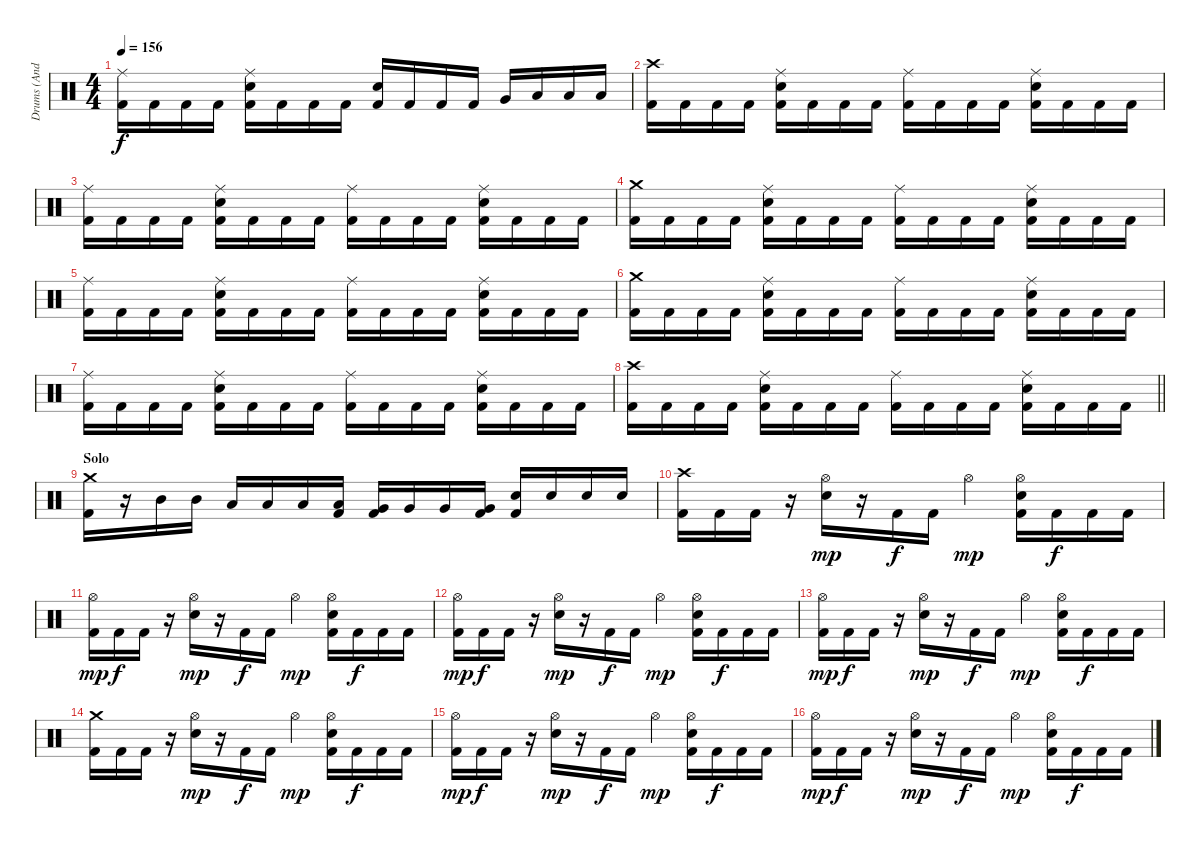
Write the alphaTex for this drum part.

\track ("Drums (Andy C)" "Drums (And") {instrument percussion}
\staff
\articulation defaults
\ts (4 4)
\tempo 156
\clef neutral
\ks c
("Ride (middle)" "Kick (hit) 2").16{dy f} "Kick (hit) 2".16 "Kick (hit) 2".16 "Kick (hit) 2".16 ("Ride (middle)" "Kick (hit) 2" "Electric Snare (hit)").16 "Kick (hit) 2".16 "Kick (hit) 2".16 "Kick (hit) 2".16 ("Kick (hit) 2" "Electric Snare (hit)").16 "Kick (hit) 2".16 "Kick (hit) 2".16 "Kick (hit) 2".16 "Very Low Tom (hit)".16 "Low Floor Tom (hit)".16 "Low Floor Tom (hit)".16 "Low Floor Tom (hit)".16 |
("Crash high (hit)" "Kick (hit) 2").16 "Kick (hit) 2".16 "Kick (hit) 2".16 "Kick (hit) 2".16 ("Ride (middle)" "Kick (hit) 2" "Electric Snare (hit)").16 "Kick (hit) 2".16 "Kick (hit) 2".16 "Kick (hit) 2".16 ("Ride (middle)" "Kick (hit) 2").16 "Kick (hit) 2".16 "Kick (hit) 2".16 "Kick (hit) 2".16 ("Ride (middle)" "Kick (hit) 2" "Electric Snare (hit)").16 "Kick (hit) 2".16 "Kick (hit) 2".16 "Kick (hit) 2".16 |
("Ride (middle)" "Kick (hit) 2").16 "Kick (hit) 2".16 "Kick (hit) 2".16 "Kick (hit) 2".16 ("Ride (middle)" "Kick (hit) 2" "Electric Snare (hit)").16 "Kick (hit) 2".16 "Kick (hit) 2".16 "Kick (hit) 2".16 ("Ride (middle)" "Kick (hit) 2").16 "Kick (hit) 2".16 "Kick (hit) 2".16 "Kick (hit) 2".16 ("Ride (middle)" "Kick (hit) 2" "Electric Snare (hit)").16 "Kick (hit) 2".16 "Kick (hit) 2".16 "Kick (hit) 2".16 |
("Crash medium (hit)" "Kick (hit) 2").16 "Kick (hit) 2".16 "Kick (hit) 2".16 "Kick (hit) 2".16 ("Ride (middle)" "Kick (hit) 2" "Electric Snare (hit)").16 "Kick (hit) 2".16 "Kick (hit) 2".16 "Kick (hit) 2".16 ("Ride (middle)" "Kick (hit) 2").16 "Kick (hit) 2".16 "Kick (hit) 2".16 "Kick (hit) 2".16 ("Ride (middle)" "Kick (hit) 2" "Electric Snare (hit)").16 "Kick (hit) 2".16 "Kick (hit) 2".16 "Kick (hit) 2".16 |
("Ride (middle)" "Kick (hit) 2").16 "Kick (hit) 2".16 "Kick (hit) 2".16 "Kick (hit) 2".16 ("Ride (middle)" "Kick (hit) 2" "Electric Snare (hit)").16 "Kick (hit) 2".16 "Kick (hit) 2".16 "Kick (hit) 2".16 ("Ride (middle)" "Kick (hit) 2").16 "Kick (hit) 2".16 "Kick (hit) 2".16 "Kick (hit) 2".16 ("Ride (middle)" "Kick (hit) 2" "Electric Snare (hit)").16 "Kick (hit) 2".16 "Kick (hit) 2".16 "Kick (hit) 2".16 |
("Crash medium (hit)" "Kick (hit) 2").16 "Kick (hit) 2".16 "Kick (hit) 2".16 "Kick (hit) 2".16 ("Ride (middle)" "Kick (hit) 2" "Electric Snare (hit)").16 "Kick (hit) 2".16 "Kick (hit) 2".16 "Kick (hit) 2".16 ("Ride (middle)" "Kick (hit) 2").16 "Kick (hit) 2".16 "Kick (hit) 2".16 "Kick (hit) 2".16 ("Ride (middle)" "Kick (hit) 2" "Electric Snare (hit)").16 "Kick (hit) 2".16 "Kick (hit) 2".16 "Kick (hit) 2".16 |
("Ride (middle)" "Kick (hit) 2").16 "Kick (hit) 2".16 "Kick (hit) 2".16 "Kick (hit) 2".16 ("Ride (middle)" "Kick (hit) 2" "Electric Snare (hit)").16 "Kick (hit) 2".16 "Kick (hit) 2".16 "Kick (hit) 2".16 ("Ride (middle)" "Kick (hit) 2").16 "Kick (hit) 2".16 "Kick (hit) 2".16 "Kick (hit) 2".16 ("Ride (middle)" "Kick (hit) 2" "Electric Snare (hit)").16 "Kick (hit) 2".16 "Kick (hit) 2".16 "Kick (hit) 2".16 |
\barLineRight lightlight
("Crash high (hit)" "Kick (hit) 2").16 "Kick (hit) 2".16 "Kick (hit) 2".16 "Kick (hit) 2".16 ("Ride (middle)" "Kick (hit) 2" "Electric Snare (hit)").16 "Kick (hit) 2".16 "Kick (hit) 2".16 "Kick (hit) 2".16 ("Ride (middle)" "Kick (hit) 2").16 "Kick (hit) 2".16 "Kick (hit) 2".16 "Kick (hit) 2".16 ("Ride (middle)" "Kick (hit) 2" "Electric Snare (hit)").16 "Kick (hit) 2".16 "Kick (hit) 2".16 "Kick (hit) 2".16 |
\section ("" "Solo ")
("Crash medium (hit)" "Kick (hit) 2").16 r.16 "Mid Tom (hit)".16 "Mid Tom (hit)".16 "Low Tom (hit)".16 "Low Tom (hit)".16 "Low Tom (hit)".16 ("Low Tom (hit)" "Kick (hit) 2").16 ("Very Low Tom (hit)" "Kick (hit) 2").16 "Very Low Tom (hit)".16 "Very Low Tom (hit)".16 ("Very Low Tom (hit)" "Kick (hit) 2").16 ("Electric Snare (hit)" "Kick (hit) 2").16 "Electric Snare (hit)".16 "Electric Snare (hit)".16 "Electric Snare (hit)".16 |
("Crash high (hit)" "Kick (hit) 2").16 "Kick (hit) 2".16 "Kick (hit) 2".16 r.16 ("Hi-Hat (open)" "Electric Snare (hit)").16{dy mp} r.16 "Kick (hit) 2".16{dy f} "Kick (hit) 2".16 "Hi-Hat (open)".4{dy mp} ("Hi-Hat (open)" "Kick (hit) 2" "Electric Snare (hit)").16 "Kick (hit) 2".16{dy f} "Kick (hit) 2".16 "Kick (hit) 2".16 |
("Hi-Hat (open)" "Kick (hit) 2").16{dy mp} "Kick (hit) 2".16{dy f} "Kick (hit) 2".16 r.16 ("Hi-Hat (open)" "Electric Snare (hit)").16{dy mp} r.16 "Kick (hit) 2".16{dy f} "Kick (hit) 2".16 "Hi-Hat (open)".4{dy mp} ("Hi-Hat (open)" "Kick (hit) 2" "Electric Snare (hit)").16 "Kick (hit) 2".16{dy f} "Kick (hit) 2".16 "Kick (hit) 2".16 |
("Hi-Hat (open)" "Kick (hit) 2").16{dy mp} "Kick (hit) 2".16{dy f} "Kick (hit) 2".16 r.16 ("Hi-Hat (open)" "Electric Snare (hit)").16{dy mp} r.16 "Kick (hit) 2".16{dy f} "Kick (hit) 2".16 "Hi-Hat (open)".4{dy mp} ("Hi-Hat (open)" "Kick (hit) 2" "Electric Snare (hit)").16 "Kick (hit) 2".16{dy f} "Kick (hit) 2".16 "Kick (hit) 2".16 |
("Hi-Hat (open)" "Kick (hit) 2").16{dy mp} "Kick (hit) 2".16{dy f} "Kick (hit) 2".16 r.16 ("Hi-Hat (open)" "Electric Snare (hit)").16{dy mp} r.16 "Kick (hit) 2".16{dy f} "Kick (hit) 2".16 "Hi-Hat (open)".4{dy mp} ("Hi-Hat (open)" "Kick (hit) 2" "Electric Snare (hit)").16 "Kick (hit) 2".16{dy f} "Kick (hit) 2".16 "Kick (hit) 2".16 |
("Crash medium (hit)" "Kick (hit) 2").16 "Kick (hit) 2".16 "Kick (hit) 2".16 r.16 ("Hi-Hat (open)" "Electric Snare (hit)").16{dy mp} r.16 "Kick (hit) 2".16{dy f} "Kick (hit) 2".16 "Hi-Hat (open)".4{dy mp} ("Hi-Hat (open)" "Kick (hit) 2" "Electric Snare (hit)").16 "Kick (hit) 2".16{dy f} "Kick (hit) 2".16 "Kick (hit) 2".16 |
("Hi-Hat (open)" "Kick (hit) 2").16{dy mp} "Kick (hit) 2".16{dy f} "Kick (hit) 2".16 r.16 ("Hi-Hat (open)" "Electric Snare (hit)").16{dy mp} r.16 "Kick (hit) 2".16{dy f} "Kick (hit) 2".16 "Hi-Hat (open)".4{dy mp} ("Hi-Hat (open)" "Kick (hit) 2" "Electric Snare (hit)").16 "Kick (hit) 2".16{dy f} "Kick (hit) 2".16 "Kick (hit) 2".16 |
("Hi-Hat (open)" "Kick (hit) 2").16{dy mp} "Kick (hit) 2".16{dy f} "Kick (hit) 2".16 r.16 ("Hi-Hat (open)" "Electric Snare (hit)").16{dy mp} r.16 "Kick (hit) 2".16{dy f} "Kick (hit) 2".16 "Hi-Hat (open)".4{dy mp} ("Hi-Hat (open)" "Kick (hit) 2" "Electric Snare (hit)").16 "Kick (hit) 2".16{dy f} "Kick (hit) 2".16 "Kick (hit) 2".16
